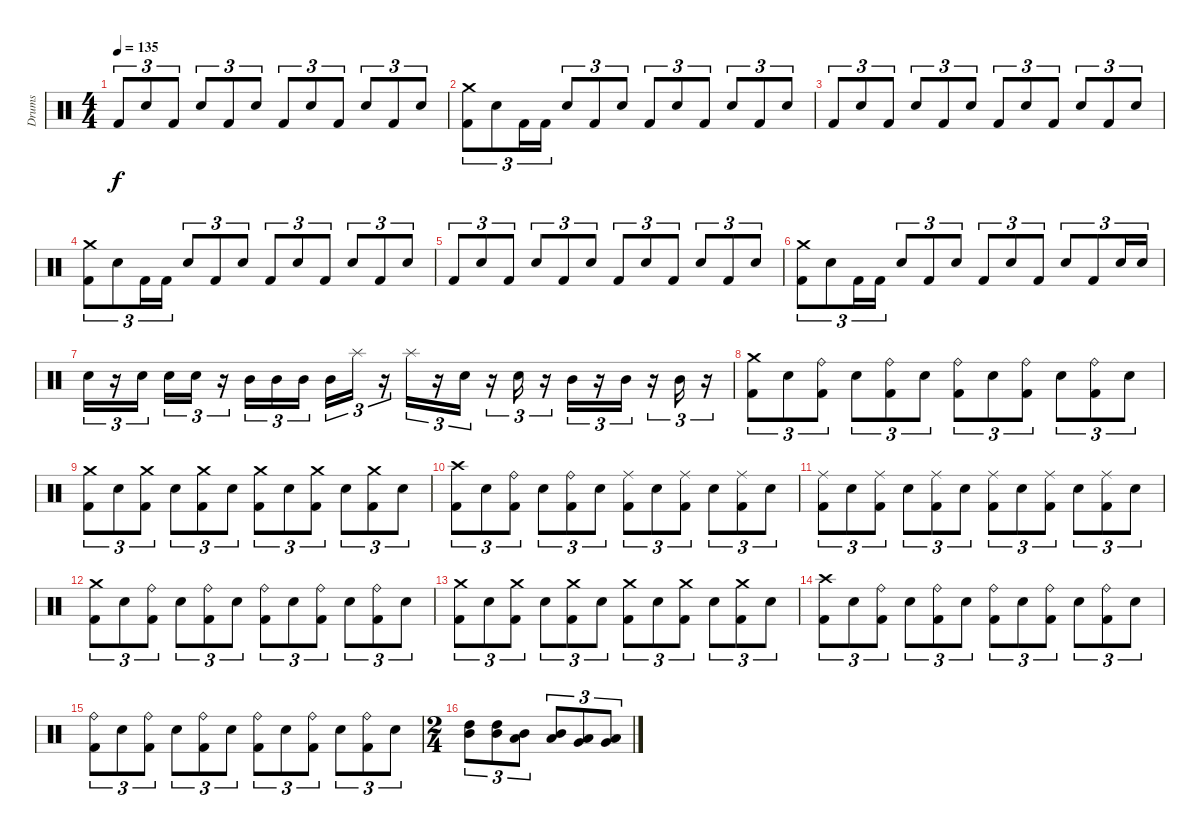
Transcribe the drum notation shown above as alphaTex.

\track ("Drums" "Drums") {instrument percussion}
\staff {score}
\articulation defaults
\ts (4 4)
\tempo 135
\clef neutral
\ks c "Kick (hit) 2".8{tu (3 2) dy f} "Snare (hit) 2".8{tu (3 2)} "Kick (hit) 2".8{tu (3 2)} "Snare (hit) 2".8{tu (3 2)} "Kick (hit) 2".8{tu (3 2)} "Snare (hit) 2".8{tu (3 2)} "Kick (hit) 2".8{tu (3 2)} "Snare (hit) 2".8{tu (3 2)} "Kick (hit) 2".8{tu (3 2)} "Snare (hit) 2".8{tu (3 2)} "Kick (hit) 2".8{tu (3 2)} "Snare (hit) 2".8{tu (3 2)}
|
("Crash medium (hit)" "Kick (hit) 2").8{tu (3 2)} "Snare (hit) 2".8{tu (3 2)} "Kick (hit) 2".16{tu (3 2)} "Kick (hit) 2".16{tu (3 2)} "Snare (hit) 2".8{tu (3 2)} "Kick (hit) 2".8{tu (3 2)} "Snare (hit) 2".8{tu (3 2)} "Kick (hit) 2".8{tu (3 2)} "Snare (hit) 2".8{tu (3 2)} "Kick (hit) 2".8{tu (3 2)} "Snare (hit) 2".8{tu (3 2)} "Kick (hit) 2".8{tu (3 2)} "Snare (hit) 2".8{tu (3 2)} |
"Kick (hit) 2".8{tu (3 2)} "Snare (hit) 2".8{tu (3 2)} "Kick (hit) 2".8{tu (3 2)} "Snare (hit) 2".8{tu (3 2)} "Kick (hit) 2".8{tu (3 2)} "Snare (hit) 2".8{tu (3 2)} "Kick (hit) 2".8{tu (3 2)} "Snare (hit) 2".8{tu (3 2)} "Kick (hit) 2".8{tu (3 2)} "Snare (hit) 2".8{tu (3 2)} "Kick (hit) 2".8{tu (3 2)} "Snare (hit) 2".8{tu (3 2)} |
("Crash medium (hit)" "Kick (hit) 2").8{tu (3 2)} "Snare (hit) 2".8{tu (3 2)} "Kick (hit) 2".16{tu (3 2)} "Kick (hit) 2".16{tu (3 2)} "Snare (hit) 2".8{tu (3 2)} "Kick (hit) 2".8{tu (3 2)} "Snare (hit) 2".8{tu (3 2)} "Kick (hit) 2".8{tu (3 2)} "Snare (hit) 2".8{tu (3 2)} "Kick (hit) 2".8{tu (3 2)} "Snare (hit) 2".8{tu (3 2)} "Kick (hit) 2".8{tu (3 2)} "Snare (hit) 2".8{tu (3 2)} |
"Kick (hit) 2".8{tu (3 2)} "Snare (hit) 2".8{tu (3 2)} "Kick (hit) 2".8{tu (3 2)} "Snare (hit) 2".8{tu (3 2)} "Kick (hit) 2".8{tu (3 2)} "Snare (hit) 2".8{tu (3 2)} "Kick (hit) 2".8{tu (3 2)} "Snare (hit) 2".8{tu (3 2)} "Kick (hit) 2".8{tu (3 2)} "Snare (hit) 2".8{tu (3 2)} "Kick (hit) 2".8{tu (3 2)} "Snare (hit) 2".8{tu (3 2)} |
("Crash medium (hit)" "Kick (hit) 2").8{tu (3 2)} "Snare (hit) 2".8{tu (3 2)} "Kick (hit) 2".16{tu (3 2)} "Kick (hit) 2".16{tu (3 2)} "Snare (hit) 2".8{tu (3 2)} "Kick (hit) 2".8{tu (3 2)} "Snare (hit) 2".8{tu (3 2)} "Kick (hit) 2".8{tu (3 2)} "Snare (hit) 2".8{tu (3 2)} "Kick (hit) 2".8{tu (3 2)} "Snare (hit) 2".8{tu (3 2)} "Kick (hit) 2".8{tu (3 2)} "Snare (hit) 2".16{tu (3 2)} "Snare (hit) 2".16{tu (3 2)} |
"Snare (hit) 2".16{tu (3 2)} r.16{tu (3 2)} "Snare (hit) 2".16{tu (3 2) beam splitsecondary} "Snare (hit) 2".16{tu (3 2)} "Snare (hit) 2".16{tu (3 2)} r.16{tu (3 2)} "Mid Tom (hit)".16{tu (3 2)} "Mid Tom (hit)".16{tu (3 2)} "Mid Tom (hit)".16{tu (3 2) beam splitsecondary} "Mid Tom (hit)".16{tu (3 2)} "Splash (hit)".16{tu (3 2)} r.16{tu (3 2)} "Splash (hit)".16{tu (3 2)} r.16{tu (3 2)} "Snare (hit) 2".16{tu (3 2)} r.16{tu (3 2)} "Snare (hit) 2".16{tu (3 2)} r.16{tu (3 2)} "Mid Tom (hit)".16{tu (3 2)} r.16{tu (3 2)} "Mid Tom (hit)".16{tu (3 2)} r.16{tu (3 2)} "Mid Tom (hit)".16{tu (3 2)} r.16{tu (3 2)} |
("Crash medium (hit)" "Kick (hit) 2").8{tu (3 2)} "Snare (hit) 2".8{tu (3 2)} ("Ride (bell)" "Kick (hit) 2").8{tu (3 2)} "Snare (hit) 2".8{tu (3 2)} ("Ride (bell)" "Kick (hit) 2").8{tu (3 2)} "Snare (hit) 2".8{tu (3 2)} ("Ride (bell)" "Kick (hit) 2").8{tu (3 2)} "Snare (hit) 2".8{tu (3 2)} ("Ride (bell)" "Kick (hit) 2").8{tu (3 2)} "Snare (hit) 2".8{tu (3 2)} ("Ride (bell)" "Kick (hit) 2").8{tu (3 2)} "Snare (hit) 2".8{tu (3 2)} |
("Crash medium (hit)" "Kick (hit) 2").8{tu (3 2)} "Snare (hit) 2".8{tu (3 2)} ("Crash medium (hit)" "Kick (hit) 2").8{tu (3 2)} "Snare (hit) 2".8{tu (3 2)} ("Crash medium (hit)" "Kick (hit) 2").8{tu (3 2)} "Snare (hit) 2".8{tu (3 2)} ("Crash medium (hit)" "Kick (hit) 2").8{tu (3 2)} "Snare (hit) 2".8{tu (3 2)} ("Crash medium (hit)" "Kick (hit) 2").8{tu (3 2)} "Snare (hit) 2".8{tu (3 2)} ("Crash medium (hit)" "Kick (hit) 2").8{tu (3 2)} "Snare (hit) 2".8{tu (3 2)} |
("Crash high (hit)" "Kick (hit) 2").8{tu (3 2)} "Snare (hit) 2".8{tu (3 2)} ("Ride (bell)" "Kick (hit) 2").8{tu (3 2)} "Snare (hit) 2".8{tu (3 2)} ("Ride (bell)" "Kick (hit) 2").8{tu (3 2)} "Snare (hit) 2".8{tu (3 2)} ("Ride (middle)" "Kick (hit) 2").8{tu (3 2)} "Snare (hit) 2".8{tu (3 2)} ("Ride (middle)" "Kick (hit) 2").8{tu (3 2)} "Snare (hit) 2".8{tu (3 2)} ("Ride (middle)" "Kick (hit) 2").8{tu (3 2)} "Snare (hit) 2".8{tu (3 2)} |
("Ride (middle)" "Kick (hit) 2").8{tu (3 2)} "Snare (hit) 2".8{tu (3 2)} ("Ride (middle)" "Kick (hit) 2").8{tu (3 2)} "Snare (hit) 2".8{tu (3 2)} ("Ride (middle)" "Kick (hit) 2").8{tu (3 2)} "Snare (hit) 2".8{tu (3 2)} ("Ride (middle)" "Kick (hit) 2").8{tu (3 2)} "Snare (hit) 2".8{tu (3 2)} ("Ride (middle)" "Kick (hit) 2").8{tu (3 2)} "Snare (hit) 2".8{tu (3 2)} ("Ride (middle)" "Kick (hit) 2").8{tu (3 2)} "Snare (hit) 2".8{tu (3 2)} |
("Crash medium (hit)" "Kick (hit) 2").8{tu (3 2)} "Snare (hit) 2".8{tu (3 2)} ("Ride (bell)" "Kick (hit) 2").8{tu (3 2)} "Snare (hit) 2".8{tu (3 2)} ("Ride (bell)" "Kick (hit) 2").8{tu (3 2)} "Snare (hit) 2".8{tu (3 2)} ("Ride (bell)" "Kick (hit) 2").8{tu (3 2)} "Snare (hit) 2".8{tu (3 2)} ("Ride (bell)" "Kick (hit) 2").8{tu (3 2)} "Snare (hit) 2".8{tu (3 2)} ("Ride (bell)" "Kick (hit) 2").8{tu (3 2)} "Snare (hit) 2".8{tu (3 2)} |
("Crash medium (hit)" "Kick (hit) 2").8{tu (3 2)} "Snare (hit) 2".8{tu (3 2)} ("Crash medium (hit)" "Kick (hit) 2").8{tu (3 2)} "Snare (hit) 2".8{tu (3 2)} ("Crash medium (hit)" "Kick (hit) 2").8{tu (3 2)} "Snare (hit) 2".8{tu (3 2)} ("Crash medium (hit)" "Kick (hit) 2").8{tu (3 2)} "Snare (hit) 2".8{tu (3 2)} ("Crash medium (hit)" "Kick (hit) 2").8{tu (3 2)} "Snare (hit) 2".8{tu (3 2)} ("Crash medium (hit)" "Kick (hit) 2").8{tu (3 2)} "Snare (hit) 2".8{tu (3 2)} |
("Crash high (hit)" "Kick (hit) 2").8{tu (3 2)} "Snare (hit) 2".8{tu (3 2)} ("Ride (bell)" "Kick (hit) 2").8{tu (3 2)} "Snare (hit) 2".8{tu (3 2)} ("Ride (bell)" "Kick (hit) 2").8{tu (3 2)} "Snare (hit) 2".8{tu (3 2)} ("Ride (bell)" "Kick (hit) 2").8{tu (3 2)} "Snare (hit) 2".8{tu (3 2)} ("Ride (bell)" "Kick (hit) 2").8{tu (3 2)} "Snare (hit) 2".8{tu (3 2)} ("Ride (bell)" "Kick (hit) 2").8{tu (3 2)} "Snare (hit) 2".8{tu (3 2)} |
("Ride (bell)" "Kick (hit) 2").8{tu (3 2)} "Snare (hit) 2".8{tu (3 2)} ("Ride (bell)" "Kick (hit) 2").8{tu (3 2)} "Snare (hit) 2".8{tu (3 2)} ("Ride (bell)" "Kick (hit) 2").8{tu (3 2)} "Snare (hit) 2".8{tu (3 2)} ("Ride (bell)" "Kick (hit) 2").8{tu (3 2)} "Snare (hit) 2".8{tu (3 2)} ("Ride (bell)" "Kick (hit) 2").8{tu (3 2)} "Snare (hit) 2".8{tu (3 2)} ("Ride (bell)" "Kick (hit) 2").8{tu (3 2)} "Snare (hit) 2".8{tu (3 2)} |
\ts (2 4)
("High Tom (hit)" "Mid Tom (hit)").8{tu (3 2)} ("High Tom (hit)" "Mid Tom (hit)").8{tu (3 2)} ("Mid Tom (hit)" "Low Tom (hit)").8{tu (3 2)} ("Mid Tom (hit)" "Low Tom (hit)").8{tu (3 2)} ("Low Tom (hit)" "Very Low Tom (hit)").8{tu (3 2)} ("Low Tom (hit)" "Very Low Tom (hit)").8{tu (3 2)}
